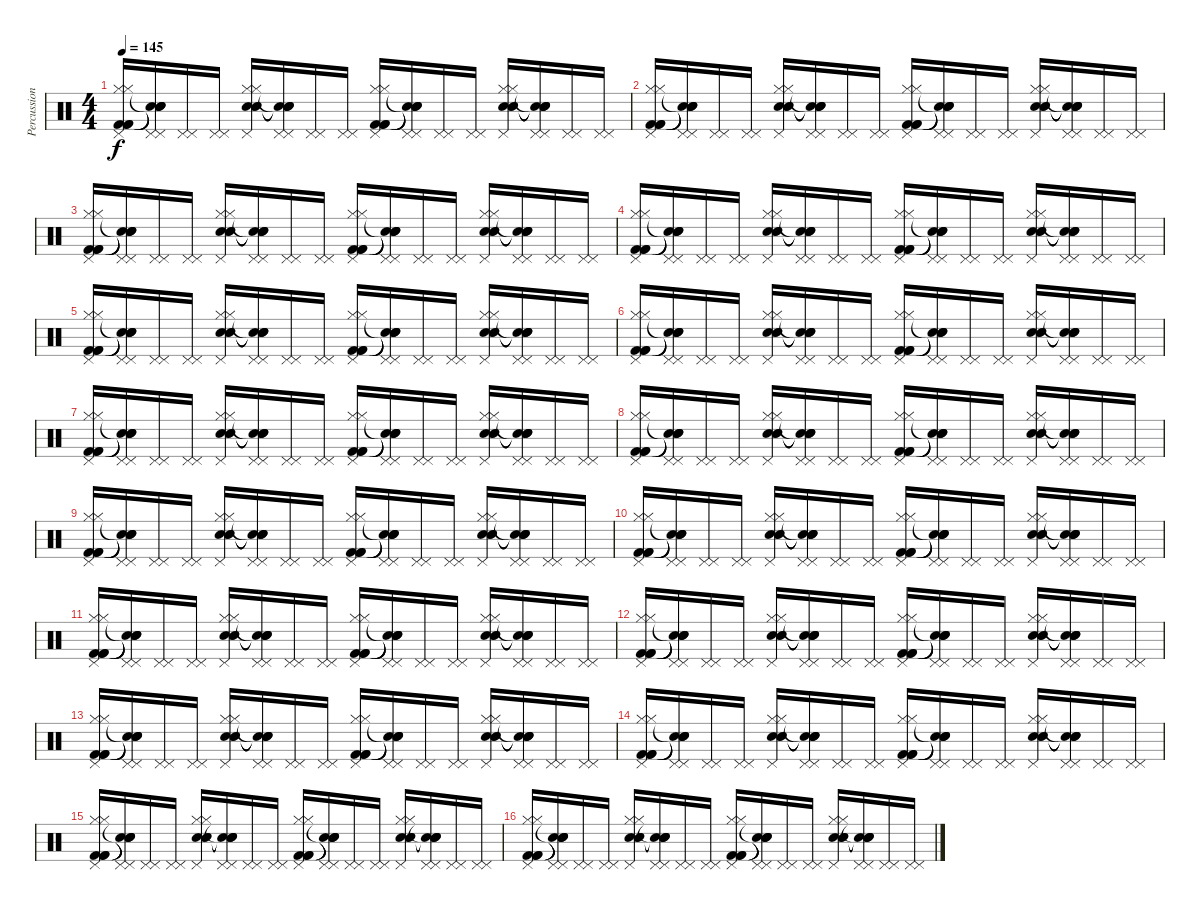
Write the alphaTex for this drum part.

\track ("Percussion" "Percussion") {instrument percussion}
\staff {score}
\articulation defaults
\ts (4 4)
\tempo 145
\clef neutral
\ks c
("Pedal Hi-Hat (hit)" "Hi-Hat (closed)" "Hi-Hat (closed)" "Kick (hit) 2" "Kick (hit) 2" "Kick (hit) 2").16{dy f} ("Pedal Hi-Hat (hit)" "Pedal Hi-Hat (hit)" "Snare (hit)"{t} "Snare (hit)"{t} "Snare (hit)"{t} "Snare (hit)"{t}).16 ("Pedal Hi-Hat (hit)" "Pedal Hi-Hat (hit)").16 ("Pedal Hi-Hat (hit)" "Pedal Hi-Hat (hit)").16 ("Pedal Hi-Hat (hit)" "Hi-Hat (closed)" "Hi-Hat (closed)" "Snare (hit) 2" "Snare (hit) 2" "Snare (hit) 2").16 ("Pedal Hi-Hat (hit)" "Pedal Hi-Hat (hit)" "Snare (hit)"{t} "Snare (hit)"{t} "Snare (hit)"{t} "Snare (hit)"{t}).16 ("Pedal Hi-Hat (hit)" "Pedal Hi-Hat (hit)").16 ("Pedal Hi-Hat (hit)" "Pedal Hi-Hat (hit)").16 ("Pedal Hi-Hat (hit)" "Hi-Hat (closed)" "Hi-Hat (closed)" "Kick (hit) 2" "Kick (hit) 2" "Kick (hit) 2").16 ("Pedal Hi-Hat (hit)" "Pedal Hi-Hat (hit)" "Snare (hit)"{t} "Snare (hit)"{t} "Snare (hit)"{t} "Snare (hit)"{t}).16 ("Pedal Hi-Hat (hit)" "Pedal Hi-Hat (hit)").16 ("Pedal Hi-Hat (hit)" "Pedal Hi-Hat (hit)").16 ("Pedal Hi-Hat (hit)" "Hi-Hat (closed)" "Hi-Hat (closed)" "Snare (hit) 2" "Snare (hit) 2" "Snare (hit) 2").16 ("Pedal Hi-Hat (hit)" "Pedal Hi-Hat (hit)" "Snare (hit)"{t} "Snare (hit)"{t} "Snare (hit)"{t} "Snare (hit)"{t}).16 ("Pedal Hi-Hat (hit)" "Pedal Hi-Hat (hit)").16 ("Pedal Hi-Hat (hit)" "Pedal Hi-Hat (hit)").16 |
("Pedal Hi-Hat (hit)" "Hi-Hat (closed)" "Hi-Hat (closed)" "Kick (hit) 2" "Kick (hit) 2" "Kick (hit) 2").16 ("Pedal Hi-Hat (hit)" "Pedal Hi-Hat (hit)" "Snare (hit)"{t} "Snare (hit)"{t} "Snare (hit)"{t} "Snare (hit)"{t}).16 ("Pedal Hi-Hat (hit)" "Pedal Hi-Hat (hit)").16 ("Pedal Hi-Hat (hit)" "Pedal Hi-Hat (hit)").16 ("Pedal Hi-Hat (hit)" "Hi-Hat (closed)" "Hi-Hat (closed)" "Snare (hit) 2" "Snare (hit) 2" "Snare (hit) 2").16 ("Pedal Hi-Hat (hit)" "Pedal Hi-Hat (hit)" "Snare (hit)"{t} "Snare (hit)"{t} "Snare (hit)"{t} "Snare (hit)"{t}).16 ("Pedal Hi-Hat (hit)" "Pedal Hi-Hat (hit)").16 ("Pedal Hi-Hat (hit)" "Pedal Hi-Hat (hit)").16 ("Pedal Hi-Hat (hit)" "Hi-Hat (closed)" "Hi-Hat (closed)" "Kick (hit) 2" "Kick (hit) 2" "Kick (hit) 2").16 ("Pedal Hi-Hat (hit)" "Pedal Hi-Hat (hit)" "Snare (hit)"{t} "Snare (hit)"{t} "Snare (hit)"{t} "Snare (hit)"{t}).16 ("Pedal Hi-Hat (hit)" "Pedal Hi-Hat (hit)").16 ("Pedal Hi-Hat (hit)" "Pedal Hi-Hat (hit)").16 ("Pedal Hi-Hat (hit)" "Hi-Hat (closed)" "Hi-Hat (closed)" "Snare (hit) 2" "Snare (hit) 2" "Snare (hit) 2").16 ("Pedal Hi-Hat (hit)" "Pedal Hi-Hat (hit)" "Snare (hit)"{t} "Snare (hit)"{t} "Snare (hit)"{t} "Snare (hit)"{t}).16 ("Pedal Hi-Hat (hit)" "Pedal Hi-Hat (hit)").16 ("Pedal Hi-Hat (hit)" "Pedal Hi-Hat (hit)").16 |
("Pedal Hi-Hat (hit)" "Hi-Hat (closed)" "Hi-Hat (closed)" "Kick (hit) 2" "Kick (hit) 2" "Kick (hit) 2").16 ("Pedal Hi-Hat (hit)" "Pedal Hi-Hat (hit)" "Snare (hit)"{t} "Snare (hit)"{t} "Snare (hit)"{t} "Snare (hit)"{t}).16 ("Pedal Hi-Hat (hit)" "Pedal Hi-Hat (hit)").16 ("Pedal Hi-Hat (hit)" "Pedal Hi-Hat (hit)").16 ("Pedal Hi-Hat (hit)" "Hi-Hat (closed)" "Hi-Hat (closed)" "Snare (hit) 2" "Snare (hit) 2" "Snare (hit) 2").16 ("Pedal Hi-Hat (hit)" "Pedal Hi-Hat (hit)" "Snare (hit)"{t} "Snare (hit)"{t} "Snare (hit)"{t} "Snare (hit)"{t}).16 ("Pedal Hi-Hat (hit)" "Pedal Hi-Hat (hit)").16 ("Pedal Hi-Hat (hit)" "Pedal Hi-Hat (hit)").16 ("Pedal Hi-Hat (hit)" "Hi-Hat (closed)" "Hi-Hat (closed)" "Kick (hit) 2" "Kick (hit) 2" "Kick (hit) 2").16 ("Pedal Hi-Hat (hit)" "Pedal Hi-Hat (hit)" "Snare (hit)"{t} "Snare (hit)"{t} "Snare (hit)"{t} "Snare (hit)"{t}).16 ("Pedal Hi-Hat (hit)" "Pedal Hi-Hat (hit)").16 ("Pedal Hi-Hat (hit)" "Pedal Hi-Hat (hit)").16 ("Pedal Hi-Hat (hit)" "Hi-Hat (closed)" "Hi-Hat (closed)" "Snare (hit) 2" "Snare (hit) 2" "Snare (hit) 2").16 ("Pedal Hi-Hat (hit)" "Pedal Hi-Hat (hit)" "Snare (hit)"{t} "Snare (hit)"{t} "Snare (hit)"{t} "Snare (hit)"{t}).16 ("Pedal Hi-Hat (hit)" "Pedal Hi-Hat (hit)").16 ("Pedal Hi-Hat (hit)" "Pedal Hi-Hat (hit)").16 |
("Pedal Hi-Hat (hit)" "Hi-Hat (closed)" "Hi-Hat (closed)" "Kick (hit) 2" "Kick (hit) 2" "Kick (hit) 2").16 ("Pedal Hi-Hat (hit)" "Pedal Hi-Hat (hit)" "Snare (hit)"{t} "Snare (hit)"{t} "Snare (hit)"{t} "Snare (hit)"{t}).16 ("Pedal Hi-Hat (hit)" "Pedal Hi-Hat (hit)").16 ("Pedal Hi-Hat (hit)" "Pedal Hi-Hat (hit)").16 ("Pedal Hi-Hat (hit)" "Hi-Hat (closed)" "Hi-Hat (closed)" "Snare (hit) 2" "Snare (hit) 2" "Snare (hit) 2").16 ("Pedal Hi-Hat (hit)" "Pedal Hi-Hat (hit)" "Snare (hit)"{t} "Snare (hit)"{t} "Snare (hit)"{t} "Snare (hit)"{t}).16 ("Pedal Hi-Hat (hit)" "Pedal Hi-Hat (hit)").16 ("Pedal Hi-Hat (hit)" "Pedal Hi-Hat (hit)").16 ("Pedal Hi-Hat (hit)" "Hi-Hat (closed)" "Hi-Hat (closed)" "Kick (hit) 2" "Kick (hit) 2" "Kick (hit) 2").16 ("Pedal Hi-Hat (hit)" "Pedal Hi-Hat (hit)" "Snare (hit)"{t} "Snare (hit)"{t} "Snare (hit)"{t} "Snare (hit)"{t}).16 ("Pedal Hi-Hat (hit)" "Pedal Hi-Hat (hit)").16 ("Pedal Hi-Hat (hit)" "Pedal Hi-Hat (hit)").16 ("Pedal Hi-Hat (hit)" "Hi-Hat (closed)" "Hi-Hat (closed)" "Snare (hit) 2" "Snare (hit) 2" "Snare (hit) 2").16 ("Pedal Hi-Hat (hit)" "Pedal Hi-Hat (hit)" "Snare (hit)"{t} "Snare (hit)"{t} "Snare (hit)"{t} "Snare (hit)"{t}).16 ("Pedal Hi-Hat (hit)" "Pedal Hi-Hat (hit)").16 ("Pedal Hi-Hat (hit)" "Pedal Hi-Hat (hit)").16 |
("Pedal Hi-Hat (hit)" "Hi-Hat (closed)" "Hi-Hat (closed)" "Kick (hit) 2" "Kick (hit) 2" "Kick (hit) 2").16 ("Pedal Hi-Hat (hit)" "Pedal Hi-Hat (hit)" "Snare (hit)"{t} "Snare (hit)"{t} "Snare (hit)"{t} "Snare (hit)"{t}).16 ("Pedal Hi-Hat (hit)" "Pedal Hi-Hat (hit)").16 ("Pedal Hi-Hat (hit)" "Pedal Hi-Hat (hit)").16 ("Pedal Hi-Hat (hit)" "Hi-Hat (closed)" "Hi-Hat (closed)" "Snare (hit) 2" "Snare (hit) 2" "Snare (hit) 2").16 ("Pedal Hi-Hat (hit)" "Pedal Hi-Hat (hit)" "Snare (hit)"{t} "Snare (hit)"{t} "Snare (hit)"{t} "Snare (hit)"{t}).16 ("Pedal Hi-Hat (hit)" "Pedal Hi-Hat (hit)").16 ("Pedal Hi-Hat (hit)" "Pedal Hi-Hat (hit)").16 ("Pedal Hi-Hat (hit)" "Hi-Hat (closed)" "Hi-Hat (closed)" "Kick (hit) 2" "Kick (hit) 2" "Kick (hit) 2").16 ("Pedal Hi-Hat (hit)" "Pedal Hi-Hat (hit)" "Snare (hit)"{t} "Snare (hit)"{t} "Snare (hit)"{t} "Snare (hit)"{t}).16 ("Pedal Hi-Hat (hit)" "Pedal Hi-Hat (hit)").16 ("Pedal Hi-Hat (hit)" "Pedal Hi-Hat (hit)").16 ("Pedal Hi-Hat (hit)" "Hi-Hat (closed)" "Hi-Hat (closed)" "Snare (hit) 2" "Snare (hit) 2" "Snare (hit) 2").16 ("Pedal Hi-Hat (hit)" "Pedal Hi-Hat (hit)" "Snare (hit)"{t} "Snare (hit)"{t} "Snare (hit)"{t} "Snare (hit)"{t}).16 ("Pedal Hi-Hat (hit)" "Pedal Hi-Hat (hit)").16 ("Pedal Hi-Hat (hit)" "Pedal Hi-Hat (hit)").16 |
("Pedal Hi-Hat (hit)" "Hi-Hat (closed)" "Hi-Hat (closed)" "Kick (hit) 2" "Kick (hit) 2" "Kick (hit) 2").16 ("Pedal Hi-Hat (hit)" "Pedal Hi-Hat (hit)" "Snare (hit)"{t} "Snare (hit)"{t} "Snare (hit)"{t} "Snare (hit)"{t}).16 ("Pedal Hi-Hat (hit)" "Pedal Hi-Hat (hit)").16 ("Pedal Hi-Hat (hit)" "Pedal Hi-Hat (hit)").16 ("Pedal Hi-Hat (hit)" "Hi-Hat (closed)" "Hi-Hat (closed)" "Snare (hit) 2" "Snare (hit) 2" "Snare (hit) 2").16 ("Pedal Hi-Hat (hit)" "Pedal Hi-Hat (hit)" "Snare (hit)"{t} "Snare (hit)"{t} "Snare (hit)"{t} "Snare (hit)"{t}).16 ("Pedal Hi-Hat (hit)" "Pedal Hi-Hat (hit)").16 ("Pedal Hi-Hat (hit)" "Pedal Hi-Hat (hit)").16 ("Pedal Hi-Hat (hit)" "Hi-Hat (closed)" "Hi-Hat (closed)" "Kick (hit) 2" "Kick (hit) 2" "Kick (hit) 2").16 ("Pedal Hi-Hat (hit)" "Pedal Hi-Hat (hit)" "Snare (hit)"{t} "Snare (hit)"{t} "Snare (hit)"{t} "Snare (hit)"{t}).16 ("Pedal Hi-Hat (hit)" "Pedal Hi-Hat (hit)").16 ("Pedal Hi-Hat (hit)" "Pedal Hi-Hat (hit)").16 ("Pedal Hi-Hat (hit)" "Hi-Hat (closed)" "Hi-Hat (closed)" "Snare (hit) 2" "Snare (hit) 2" "Snare (hit) 2").16 ("Pedal Hi-Hat (hit)" "Pedal Hi-Hat (hit)" "Snare (hit)"{t} "Snare (hit)"{t} "Snare (hit)"{t} "Snare (hit)"{t}).16 ("Pedal Hi-Hat (hit)" "Pedal Hi-Hat (hit)").16 ("Pedal Hi-Hat (hit)" "Pedal Hi-Hat (hit)").16 |
("Pedal Hi-Hat (hit)" "Hi-Hat (closed)" "Hi-Hat (closed)" "Kick (hit) 2" "Kick (hit) 2" "Kick (hit) 2").16 ("Pedal Hi-Hat (hit)" "Pedal Hi-Hat (hit)" "Snare (hit)"{t} "Snare (hit)"{t} "Snare (hit)"{t} "Snare (hit)"{t}).16 ("Pedal Hi-Hat (hit)" "Pedal Hi-Hat (hit)").16 ("Pedal Hi-Hat (hit)" "Pedal Hi-Hat (hit)").16 ("Pedal Hi-Hat (hit)" "Hi-Hat (closed)" "Hi-Hat (closed)" "Snare (hit) 2" "Snare (hit) 2" "Snare (hit) 2").16 ("Pedal Hi-Hat (hit)" "Pedal Hi-Hat (hit)" "Snare (hit)"{t} "Snare (hit)"{t} "Snare (hit)"{t} "Snare (hit)"{t}).16 ("Pedal Hi-Hat (hit)" "Pedal Hi-Hat (hit)").16 ("Pedal Hi-Hat (hit)" "Pedal Hi-Hat (hit)").16 ("Pedal Hi-Hat (hit)" "Hi-Hat (closed)" "Hi-Hat (closed)" "Kick (hit) 2" "Kick (hit) 2" "Kick (hit) 2").16 ("Pedal Hi-Hat (hit)" "Pedal Hi-Hat (hit)" "Snare (hit)"{t} "Snare (hit)"{t} "Snare (hit)"{t} "Snare (hit)"{t}).16 ("Pedal Hi-Hat (hit)" "Pedal Hi-Hat (hit)").16 ("Pedal Hi-Hat (hit)" "Pedal Hi-Hat (hit)").16 ("Pedal Hi-Hat (hit)" "Hi-Hat (closed)" "Hi-Hat (closed)" "Snare (hit) 2" "Snare (hit) 2" "Snare (hit) 2").16 ("Pedal Hi-Hat (hit)" "Pedal Hi-Hat (hit)" "Snare (hit)"{t} "Snare (hit)"{t} "Snare (hit)"{t} "Snare (hit)"{t}).16 ("Pedal Hi-Hat (hit)" "Pedal Hi-Hat (hit)").16 ("Pedal Hi-Hat (hit)" "Pedal Hi-Hat (hit)").16 |
("Pedal Hi-Hat (hit)" "Hi-Hat (closed)" "Hi-Hat (closed)" "Kick (hit) 2" "Kick (hit) 2" "Kick (hit) 2").16 ("Pedal Hi-Hat (hit)" "Pedal Hi-Hat (hit)" "Snare (hit)"{t} "Snare (hit)"{t} "Snare (hit)"{t} "Snare (hit)"{t}).16 ("Pedal Hi-Hat (hit)" "Pedal Hi-Hat (hit)").16 ("Pedal Hi-Hat (hit)" "Pedal Hi-Hat (hit)").16 ("Pedal Hi-Hat (hit)" "Hi-Hat (closed)" "Hi-Hat (closed)" "Snare (hit) 2" "Snare (hit) 2" "Snare (hit) 2").16 ("Pedal Hi-Hat (hit)" "Pedal Hi-Hat (hit)" "Snare (hit)"{t} "Snare (hit)"{t} "Snare (hit)"{t} "Snare (hit)"{t}).16 ("Pedal Hi-Hat (hit)" "Pedal Hi-Hat (hit)").16 ("Pedal Hi-Hat (hit)" "Pedal Hi-Hat (hit)").16 ("Pedal Hi-Hat (hit)" "Hi-Hat (closed)" "Hi-Hat (closed)" "Kick (hit) 2" "Kick (hit) 2" "Kick (hit) 2").16 ("Pedal Hi-Hat (hit)" "Pedal Hi-Hat (hit)" "Snare (hit)"{t} "Snare (hit)"{t} "Snare (hit)"{t} "Snare (hit)"{t}).16 ("Pedal Hi-Hat (hit)" "Pedal Hi-Hat (hit)").16 ("Pedal Hi-Hat (hit)" "Pedal Hi-Hat (hit)").16 ("Pedal Hi-Hat (hit)" "Hi-Hat (closed)" "Hi-Hat (closed)" "Snare (hit) 2" "Snare (hit) 2" "Snare (hit) 2").16 ("Pedal Hi-Hat (hit)" "Pedal Hi-Hat (hit)" "Snare (hit)"{t} "Snare (hit)"{t} "Snare (hit)"{t} "Snare (hit)"{t}).16 ("Pedal Hi-Hat (hit)" "Pedal Hi-Hat (hit)").16 ("Pedal Hi-Hat (hit)" "Pedal Hi-Hat (hit)").16 |
("Pedal Hi-Hat (hit)" "Hi-Hat (closed)" "Hi-Hat (closed)" "Kick (hit) 2" "Kick (hit) 2" "Kick (hit) 2").16 ("Pedal Hi-Hat (hit)" "Pedal Hi-Hat (hit)" "Snare (hit)"{t} "Snare (hit)"{t} "Snare (hit)"{t} "Snare (hit)"{t}).16 ("Pedal Hi-Hat (hit)" "Pedal Hi-Hat (hit)").16 ("Pedal Hi-Hat (hit)" "Pedal Hi-Hat (hit)").16 ("Pedal Hi-Hat (hit)" "Hi-Hat (closed)" "Hi-Hat (closed)" "Snare (hit) 2" "Snare (hit) 2" "Snare (hit) 2").16 ("Pedal Hi-Hat (hit)" "Pedal Hi-Hat (hit)" "Snare (hit)"{t} "Snare (hit)"{t} "Snare (hit)"{t} "Snare (hit)"{t}).16 ("Pedal Hi-Hat (hit)" "Pedal Hi-Hat (hit)").16 ("Pedal Hi-Hat (hit)" "Pedal Hi-Hat (hit)").16 ("Pedal Hi-Hat (hit)" "Hi-Hat (closed)" "Hi-Hat (closed)" "Kick (hit) 2" "Kick (hit) 2" "Kick (hit) 2").16 ("Pedal Hi-Hat (hit)" "Pedal Hi-Hat (hit)" "Snare (hit)"{t} "Snare (hit)"{t} "Snare (hit)"{t} "Snare (hit)"{t}).16 ("Pedal Hi-Hat (hit)" "Pedal Hi-Hat (hit)").16 ("Pedal Hi-Hat (hit)" "Pedal Hi-Hat (hit)").16 ("Pedal Hi-Hat (hit)" "Hi-Hat (closed)" "Hi-Hat (closed)" "Snare (hit) 2" "Snare (hit) 2" "Snare (hit) 2").16 ("Pedal Hi-Hat (hit)" "Pedal Hi-Hat (hit)" "Snare (hit)"{t} "Snare (hit)"{t} "Snare (hit)"{t} "Snare (hit)"{t}).16 ("Pedal Hi-Hat (hit)" "Pedal Hi-Hat (hit)").16 ("Pedal Hi-Hat (hit)" "Pedal Hi-Hat (hit)").16 |
("Pedal Hi-Hat (hit)" "Hi-Hat (closed)" "Hi-Hat (closed)" "Kick (hit) 2" "Kick (hit) 2" "Kick (hit) 2").16 ("Pedal Hi-Hat (hit)" "Pedal Hi-Hat (hit)" "Snare (hit)"{t} "Snare (hit)"{t} "Snare (hit)"{t} "Snare (hit)"{t}).16 ("Pedal Hi-Hat (hit)" "Pedal Hi-Hat (hit)").16 ("Pedal Hi-Hat (hit)" "Pedal Hi-Hat (hit)").16 ("Pedal Hi-Hat (hit)" "Hi-Hat (closed)" "Hi-Hat (closed)" "Snare (hit) 2" "Snare (hit) 2" "Snare (hit) 2").16 ("Pedal Hi-Hat (hit)" "Pedal Hi-Hat (hit)" "Snare (hit)"{t} "Snare (hit)"{t} "Snare (hit)"{t} "Snare (hit)"{t}).16 ("Pedal Hi-Hat (hit)" "Pedal Hi-Hat (hit)").16 ("Pedal Hi-Hat (hit)" "Pedal Hi-Hat (hit)").16 ("Pedal Hi-Hat (hit)" "Hi-Hat (closed)" "Hi-Hat (closed)" "Kick (hit) 2" "Kick (hit) 2" "Kick (hit) 2").16 ("Pedal Hi-Hat (hit)" "Pedal Hi-Hat (hit)" "Snare (hit)"{t} "Snare (hit)"{t} "Snare (hit)"{t} "Snare (hit)"{t}).16 ("Pedal Hi-Hat (hit)" "Pedal Hi-Hat (hit)").16 ("Pedal Hi-Hat (hit)" "Pedal Hi-Hat (hit)").16 ("Pedal Hi-Hat (hit)" "Hi-Hat (closed)" "Hi-Hat (closed)" "Snare (hit) 2" "Snare (hit) 2" "Snare (hit) 2").16 ("Pedal Hi-Hat (hit)" "Pedal Hi-Hat (hit)" "Snare (hit)"{t} "Snare (hit)"{t} "Snare (hit)"{t} "Snare (hit)"{t}).16 ("Pedal Hi-Hat (hit)" "Pedal Hi-Hat (hit)").16 ("Pedal Hi-Hat (hit)" "Pedal Hi-Hat (hit)").16 |
("Pedal Hi-Hat (hit)" "Hi-Hat (closed)" "Hi-Hat (closed)" "Kick (hit) 2" "Kick (hit) 2" "Kick (hit) 2").16 ("Pedal Hi-Hat (hit)" "Pedal Hi-Hat (hit)" "Snare (hit)"{t} "Snare (hit)"{t} "Snare (hit)"{t} "Snare (hit)"{t}).16 ("Pedal Hi-Hat (hit)" "Pedal Hi-Hat (hit)").16 ("Pedal Hi-Hat (hit)" "Pedal Hi-Hat (hit)").16 ("Pedal Hi-Hat (hit)" "Hi-Hat (closed)" "Hi-Hat (closed)" "Snare (hit) 2" "Snare (hit) 2" "Snare (hit) 2").16 ("Pedal Hi-Hat (hit)" "Pedal Hi-Hat (hit)" "Snare (hit)"{t} "Snare (hit)"{t} "Snare (hit)"{t} "Snare (hit)"{t}).16 ("Pedal Hi-Hat (hit)" "Pedal Hi-Hat (hit)").16 ("Pedal Hi-Hat (hit)" "Pedal Hi-Hat (hit)").16 ("Pedal Hi-Hat (hit)" "Hi-Hat (closed)" "Hi-Hat (closed)" "Kick (hit) 2" "Kick (hit) 2" "Kick (hit) 2").16 ("Pedal Hi-Hat (hit)" "Pedal Hi-Hat (hit)" "Snare (hit)"{t} "Snare (hit)"{t} "Snare (hit)"{t} "Snare (hit)"{t}).16 ("Pedal Hi-Hat (hit)" "Pedal Hi-Hat (hit)").16 ("Pedal Hi-Hat (hit)" "Pedal Hi-Hat (hit)").16 ("Pedal Hi-Hat (hit)" "Hi-Hat (closed)" "Hi-Hat (closed)" "Snare (hit) 2" "Snare (hit) 2" "Snare (hit) 2").16 ("Pedal Hi-Hat (hit)" "Pedal Hi-Hat (hit)" "Snare (hit)"{t} "Snare (hit)"{t} "Snare (hit)"{t} "Snare (hit)"{t}).16 ("Pedal Hi-Hat (hit)" "Pedal Hi-Hat (hit)").16 ("Pedal Hi-Hat (hit)" "Pedal Hi-Hat (hit)").16 |
("Pedal Hi-Hat (hit)" "Hi-Hat (closed)" "Hi-Hat (closed)" "Kick (hit) 2" "Kick (hit) 2" "Kick (hit) 2").16 ("Pedal Hi-Hat (hit)" "Pedal Hi-Hat (hit)" "Snare (hit)"{t} "Snare (hit)"{t} "Snare (hit)"{t} "Snare (hit)"{t}).16 ("Pedal Hi-Hat (hit)" "Pedal Hi-Hat (hit)").16 ("Pedal Hi-Hat (hit)" "Pedal Hi-Hat (hit)").16 ("Pedal Hi-Hat (hit)" "Hi-Hat (closed)" "Hi-Hat (closed)" "Snare (hit) 2" "Snare (hit) 2" "Snare (hit) 2").16 ("Pedal Hi-Hat (hit)" "Pedal Hi-Hat (hit)" "Snare (hit)"{t} "Snare (hit)"{t} "Snare (hit)"{t} "Snare (hit)"{t}).16 ("Pedal Hi-Hat (hit)" "Pedal Hi-Hat (hit)").16 ("Pedal Hi-Hat (hit)" "Pedal Hi-Hat (hit)").16 ("Pedal Hi-Hat (hit)" "Hi-Hat (closed)" "Hi-Hat (closed)" "Kick (hit) 2" "Kick (hit) 2" "Kick (hit) 2").16 ("Pedal Hi-Hat (hit)" "Pedal Hi-Hat (hit)" "Snare (hit)"{t} "Snare (hit)"{t} "Snare (hit)"{t} "Snare (hit)"{t}).16 ("Pedal Hi-Hat (hit)" "Pedal Hi-Hat (hit)").16 ("Pedal Hi-Hat (hit)" "Pedal Hi-Hat (hit)").16 ("Pedal Hi-Hat (hit)" "Hi-Hat (closed)" "Hi-Hat (closed)" "Snare (hit) 2" "Snare (hit) 2" "Snare (hit) 2").16 ("Pedal Hi-Hat (hit)" "Pedal Hi-Hat (hit)" "Snare (hit)"{t} "Snare (hit)"{t} "Snare (hit)"{t} "Snare (hit)"{t}).16 ("Pedal Hi-Hat (hit)" "Pedal Hi-Hat (hit)").16 ("Pedal Hi-Hat (hit)" "Pedal Hi-Hat (hit)").16 |
("Pedal Hi-Hat (hit)" "Hi-Hat (closed)" "Hi-Hat (closed)" "Kick (hit) 2" "Kick (hit) 2" "Kick (hit) 2").16 ("Pedal Hi-Hat (hit)" "Pedal Hi-Hat (hit)" "Snare (hit)"{t} "Snare (hit)"{t} "Snare (hit)"{t} "Snare (hit)"{t}).16 ("Pedal Hi-Hat (hit)" "Pedal Hi-Hat (hit)").16 ("Pedal Hi-Hat (hit)" "Pedal Hi-Hat (hit)").16 ("Pedal Hi-Hat (hit)" "Hi-Hat (closed)" "Hi-Hat (closed)" "Snare (hit) 2" "Snare (hit) 2" "Snare (hit) 2").16 ("Pedal Hi-Hat (hit)" "Pedal Hi-Hat (hit)" "Snare (hit)"{t} "Snare (hit)"{t} "Snare (hit)"{t} "Snare (hit)"{t}).16 ("Pedal Hi-Hat (hit)" "Pedal Hi-Hat (hit)").16 ("Pedal Hi-Hat (hit)" "Pedal Hi-Hat (hit)").16 ("Pedal Hi-Hat (hit)" "Hi-Hat (closed)" "Hi-Hat (closed)" "Kick (hit) 2" "Kick (hit) 2" "Kick (hit) 2").16 ("Pedal Hi-Hat (hit)" "Pedal Hi-Hat (hit)" "Snare (hit)"{t} "Snare (hit)"{t} "Snare (hit)"{t} "Snare (hit)"{t}).16 ("Pedal Hi-Hat (hit)" "Pedal Hi-Hat (hit)").16 ("Pedal Hi-Hat (hit)" "Pedal Hi-Hat (hit)").16 ("Pedal Hi-Hat (hit)" "Hi-Hat (closed)" "Hi-Hat (closed)" "Snare (hit) 2" "Snare (hit) 2" "Snare (hit) 2").16 ("Pedal Hi-Hat (hit)" "Pedal Hi-Hat (hit)" "Snare (hit)"{t} "Snare (hit)"{t} "Snare (hit)"{t} "Snare (hit)"{t}).16 ("Pedal Hi-Hat (hit)" "Pedal Hi-Hat (hit)").16 ("Pedal Hi-Hat (hit)" "Pedal Hi-Hat (hit)").16 |
("Pedal Hi-Hat (hit)" "Hi-Hat (closed)" "Hi-Hat (closed)" "Kick (hit) 2" "Kick (hit) 2" "Kick (hit) 2").16 ("Pedal Hi-Hat (hit)" "Pedal Hi-Hat (hit)" "Snare (hit)"{t} "Snare (hit)"{t} "Snare (hit)"{t} "Snare (hit)"{t}).16 ("Pedal Hi-Hat (hit)" "Pedal Hi-Hat (hit)").16 ("Pedal Hi-Hat (hit)" "Pedal Hi-Hat (hit)").16 ("Pedal Hi-Hat (hit)" "Hi-Hat (closed)" "Hi-Hat (closed)" "Snare (hit) 2" "Snare (hit) 2" "Snare (hit) 2").16 ("Pedal Hi-Hat (hit)" "Pedal Hi-Hat (hit)" "Snare (hit)"{t} "Snare (hit)"{t} "Snare (hit)"{t} "Snare (hit)"{t}).16 ("Pedal Hi-Hat (hit)" "Pedal Hi-Hat (hit)").16 ("Pedal Hi-Hat (hit)" "Pedal Hi-Hat (hit)").16 ("Pedal Hi-Hat (hit)" "Hi-Hat (closed)" "Hi-Hat (closed)" "Kick (hit) 2" "Kick (hit) 2" "Kick (hit) 2").16 ("Pedal Hi-Hat (hit)" "Pedal Hi-Hat (hit)" "Snare (hit)"{t} "Snare (hit)"{t} "Snare (hit)"{t} "Snare (hit)"{t}).16 ("Pedal Hi-Hat (hit)" "Pedal Hi-Hat (hit)").16 ("Pedal Hi-Hat (hit)" "Pedal Hi-Hat (hit)").16 ("Pedal Hi-Hat (hit)" "Hi-Hat (closed)" "Hi-Hat (closed)" "Snare (hit) 2" "Snare (hit) 2" "Snare (hit) 2").16 ("Pedal Hi-Hat (hit)" "Pedal Hi-Hat (hit)" "Snare (hit)"{t} "Snare (hit)"{t} "Snare (hit)"{t} "Snare (hit)"{t}).16 ("Pedal Hi-Hat (hit)" "Pedal Hi-Hat (hit)").16 ("Pedal Hi-Hat (hit)" "Pedal Hi-Hat (hit)").16 |
("Pedal Hi-Hat (hit)" "Hi-Hat (closed)" "Hi-Hat (closed)" "Kick (hit) 2" "Kick (hit) 2" "Kick (hit) 2").16 ("Pedal Hi-Hat (hit)" "Pedal Hi-Hat (hit)" "Snare (hit)"{t} "Snare (hit)"{t} "Snare (hit)"{t} "Snare (hit)"{t}).16 ("Pedal Hi-Hat (hit)" "Pedal Hi-Hat (hit)").16 ("Pedal Hi-Hat (hit)" "Pedal Hi-Hat (hit)").16 ("Pedal Hi-Hat (hit)" "Hi-Hat (closed)" "Hi-Hat (closed)" "Snare (hit) 2" "Snare (hit) 2" "Snare (hit) 2").16 ("Pedal Hi-Hat (hit)" "Pedal Hi-Hat (hit)" "Snare (hit)"{t} "Snare (hit)"{t} "Snare (hit)"{t} "Snare (hit)"{t}).16 ("Pedal Hi-Hat (hit)" "Pedal Hi-Hat (hit)").16 ("Pedal Hi-Hat (hit)" "Pedal Hi-Hat (hit)").16 ("Pedal Hi-Hat (hit)" "Hi-Hat (closed)" "Hi-Hat (closed)" "Kick (hit) 2" "Kick (hit) 2" "Kick (hit) 2").16 ("Pedal Hi-Hat (hit)" "Pedal Hi-Hat (hit)" "Snare (hit)"{t} "Snare (hit)"{t} "Snare (hit)"{t} "Snare (hit)"{t}).16 ("Pedal Hi-Hat (hit)" "Pedal Hi-Hat (hit)").16 ("Pedal Hi-Hat (hit)" "Pedal Hi-Hat (hit)").16 ("Pedal Hi-Hat (hit)" "Hi-Hat (closed)" "Hi-Hat (closed)" "Snare (hit) 2" "Snare (hit) 2" "Snare (hit) 2").16 ("Pedal Hi-Hat (hit)" "Pedal Hi-Hat (hit)" "Snare (hit)"{t} "Snare (hit)"{t} "Snare (hit)"{t} "Snare (hit)"{t}).16 ("Pedal Hi-Hat (hit)" "Pedal Hi-Hat (hit)").16 ("Pedal Hi-Hat (hit)" "Pedal Hi-Hat (hit)").16 |
("Pedal Hi-Hat (hit)" "Hi-Hat (closed)" "Hi-Hat (closed)" "Kick (hit) 2" "Kick (hit) 2" "Kick (hit) 2").16 ("Pedal Hi-Hat (hit)" "Pedal Hi-Hat (hit)" "Snare (hit)"{t} "Snare (hit)"{t} "Snare (hit)"{t} "Snare (hit)"{t}).16 ("Pedal Hi-Hat (hit)" "Pedal Hi-Hat (hit)").16 ("Pedal Hi-Hat (hit)" "Pedal Hi-Hat (hit)").16 ("Pedal Hi-Hat (hit)" "Hi-Hat (closed)" "Hi-Hat (closed)" "Snare (hit) 2" "Snare (hit) 2" "Snare (hit) 2").16 ("Pedal Hi-Hat (hit)" "Pedal Hi-Hat (hit)" "Snare (hit)"{t} "Snare (hit)"{t} "Snare (hit)"{t} "Snare (hit)"{t}).16 ("Pedal Hi-Hat (hit)" "Pedal Hi-Hat (hit)").16 ("Pedal Hi-Hat (hit)" "Pedal Hi-Hat (hit)").16 ("Pedal Hi-Hat (hit)" "Hi-Hat (closed)" "Hi-Hat (closed)" "Kick (hit) 2" "Kick (hit) 2" "Kick (hit) 2").16 ("Pedal Hi-Hat (hit)" "Pedal Hi-Hat (hit)" "Snare (hit)"{t} "Snare (hit)"{t} "Snare (hit)"{t} "Snare (hit)"{t}).16 ("Pedal Hi-Hat (hit)" "Pedal Hi-Hat (hit)").16 ("Pedal Hi-Hat (hit)" "Pedal Hi-Hat (hit)").16 ("Pedal Hi-Hat (hit)" "Hi-Hat (closed)" "Hi-Hat (closed)" "Snare (hit) 2" "Snare (hit) 2" "Snare (hit) 2").16 ("Pedal Hi-Hat (hit)" "Pedal Hi-Hat (hit)" "Snare (hit)"{t} "Snare (hit)"{t} "Snare (hit)"{t} "Snare (hit)"{t}).16 ("Pedal Hi-Hat (hit)" "Pedal Hi-Hat (hit)").16 ("Pedal Hi-Hat (hit)" "Pedal Hi-Hat (hit)").16
